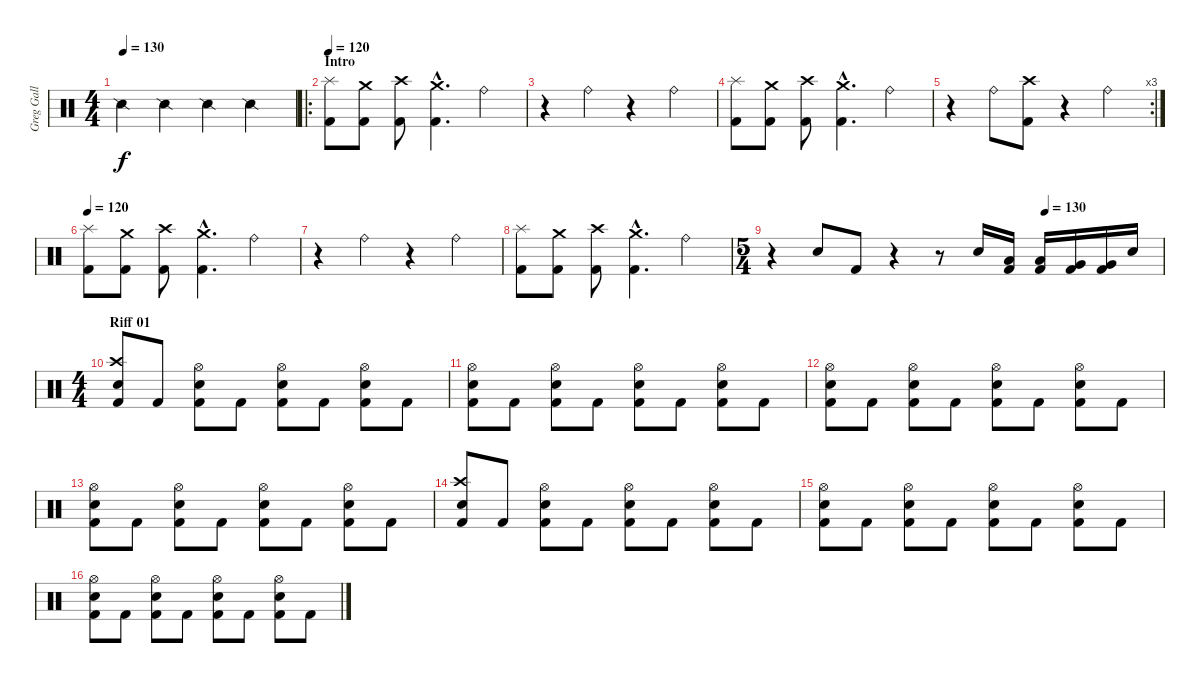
\track ("Greg Gall" "Greg Gall") {instrument percussion}
\staff {score}
\articulation defaults
\ts (4 4)
\tempo 130
\clef neutral
\ks c "Snare (side stick) 2".4{dy f} "Snare (side stick) 2".4 "Snare (side stick) 2".4 "Snare (side stick) 2".4
|
\ro
\section ("" "Intro")
\tempo 120
("Splash (hit)" "Kick (hit) 2").8 ("Crash medium (hit)" "Kick (hit) 2").8 ("Crash high (hit)" "Kick (hit) 2").8 ("Crash medium (hit)"{hac} "Kick (hit) 2"{hac}).4{d} "Ride (bell)".4 |
r.4 "Ride (bell)".4 r.4 "Ride (bell)".4 |
("Splash (hit)" "Kick (hit) 2").8 ("Crash medium (hit)" "Kick (hit) 2").8 ("Crash high (hit)" "Kick (hit) 2").8 ("Crash medium (hit)"{hac} "Kick (hit) 2"{hac}).4{d} "Ride (bell)".4 |
\rc 3
r.4 "Ride (bell)".8 ("Crash high (hit)" "Kick (hit) 2").8 r.4 "Ride (bell)".4 |
\tempo 120
("Splash (hit)" "Kick (hit) 2").8 ("Crash medium (hit)" "Kick (hit) 2").8 ("Crash high (hit)" "Kick (hit) 2").8 ("Crash medium (hit)"{hac} "Kick (hit) 2"{hac}).4{d} "Ride (bell)".4 |
r.4 "Ride (bell)".4 r.4 "Ride (bell)".4 |
("Splash (hit)" "Kick (hit) 2").8 ("Crash medium (hit)" "Kick (hit) 2").8 ("Crash high (hit)" "Kick (hit) 2").8 ("Crash medium (hit)"{hac} "Kick (hit) 2"{hac}).4{d} "Ride (bell)".4 |
\ts (5 4)
\tempo (130 0.7)
r.4 "Electric Snare (hit)".8 "Kick (hit) 2".8 r.4 r.8 "Electric Snare (hit)".16 ("Low Tom (hit)" "Kick (hit) 2").16 ("Low Tom (hit)" "Kick (hit) 2").16 ("Very Low Tom (hit)" "Kick (hit) 2").16 ("Very Low Tom (hit)" "Kick (hit) 2").16 "Electric Snare (hit)".16 |
\ts (4 4)
\section ("" "Riff 01")
("Crash high (hit)" "Electric Snare (hit)" "Kick (hit) 2").8 "Kick (hit) 2".8 ("Hi-Hat (open)" "Electric Snare (hit)" "Kick (hit) 2").8 "Kick (hit) 2".8 ("Hi-Hat (open)" "Electric Snare (hit)" "Kick (hit) 2").8 "Kick (hit) 2".8 ("Hi-Hat (open)" "Electric Snare (hit)" "Kick (hit) 2").8 "Kick (hit) 2".8 |
("Hi-Hat (open)" "Electric Snare (hit)" "Kick (hit) 2").8 "Kick (hit) 2".8 ("Hi-Hat (open)" "Electric Snare (hit)" "Kick (hit) 2").8 "Kick (hit) 2".8 ("Hi-Hat (open)" "Electric Snare (hit)" "Kick (hit) 2").8 "Kick (hit) 2".8 ("Hi-Hat (open)" "Electric Snare (hit)" "Kick (hit) 2").8 "Kick (hit) 2".8 |
("Hi-Hat (open)" "Electric Snare (hit)" "Kick (hit) 2").8 "Kick (hit) 2".8 ("Hi-Hat (open)" "Electric Snare (hit)" "Kick (hit) 2").8 "Kick (hit) 2".8 ("Hi-Hat (open)" "Electric Snare (hit)" "Kick (hit) 2").8 "Kick (hit) 2".8 ("Hi-Hat (open)" "Electric Snare (hit)" "Kick (hit) 2").8 "Kick (hit) 2".8 |
("Hi-Hat (open)" "Electric Snare (hit)" "Kick (hit) 2").8 "Kick (hit) 2".8 ("Hi-Hat (open)" "Electric Snare (hit)" "Kick (hit) 2").8 "Kick (hit) 2".8 ("Hi-Hat (open)" "Electric Snare (hit)" "Kick (hit) 2").8 "Kick (hit) 2".8 ("Hi-Hat (open)" "Electric Snare (hit)" "Kick (hit) 2").8 "Kick (hit) 2".8 |
("Crash high (hit)" "Electric Snare (hit)" "Kick (hit) 2").8 "Kick (hit) 2".8 ("Hi-Hat (open)" "Electric Snare (hit)" "Kick (hit) 2").8 "Kick (hit) 2".8 ("Hi-Hat (open)" "Electric Snare (hit)" "Kick (hit) 2").8 "Kick (hit) 2".8 ("Hi-Hat (open)" "Electric Snare (hit)" "Kick (hit) 2").8 "Kick (hit) 2".8 |
("Hi-Hat (open)" "Electric Snare (hit)" "Kick (hit) 2").8 "Kick (hit) 2".8 ("Hi-Hat (open)" "Electric Snare (hit)" "Kick (hit) 2").8 "Kick (hit) 2".8 ("Hi-Hat (open)" "Electric Snare (hit)" "Kick (hit) 2").8 "Kick (hit) 2".8 ("Hi-Hat (open)" "Electric Snare (hit)" "Kick (hit) 2").8 "Kick (hit) 2".8 |
("Hi-Hat (open)" "Electric Snare (hit)" "Kick (hit) 2").8 "Kick (hit) 2".8 ("Hi-Hat (open)" "Electric Snare (hit)" "Kick (hit) 2").8 "Kick (hit) 2".8 ("Hi-Hat (open)" "Electric Snare (hit)" "Kick (hit) 2").8 "Kick (hit) 2".8 ("Hi-Hat (open)" "Electric Snare (hit)" "Kick (hit) 2").8 "Kick (hit) 2".8
